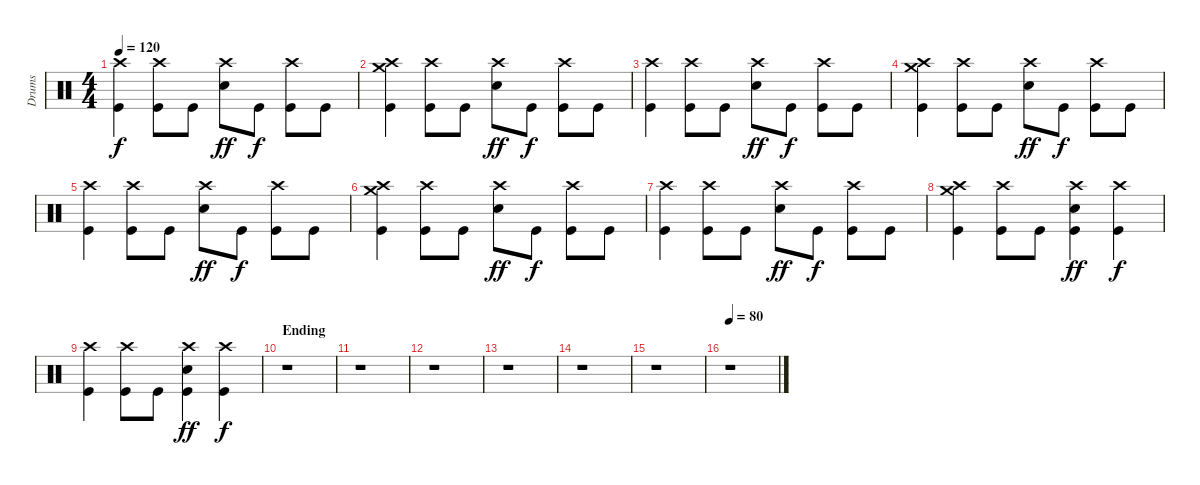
\track ("Drums" "Drums") {instrument percussion}
\staff {score}
\articulation defaults
\ts (4 4)
\tempo 120
\clef neutral
\ks c
("Crash high (hit)" "Kick (hit)").4{dy f} ("Crash high (hit)" "Kick (hit)").8 "Kick (hit)".8 ("Crash high (hit)" "Electric Snare (hit)").8{dy ff} "Kick (hit)".8{dy f} ("Crash high (hit)" "Kick (hit)").8 "Kick (hit)".8 |
("Crash high (hit)" "Crash medium (hit)" "Kick (hit)").4 ("Crash high (hit)" "Kick (hit)").8 "Kick (hit)".8 ("Crash high (hit)" "Electric Snare (hit)").8{dy ff} "Kick (hit)".8{dy f} ("Crash high (hit)" "Kick (hit)").8 "Kick (hit)".8 |
("Crash high (hit)" "Kick (hit)").4 ("Crash high (hit)" "Kick (hit)").8 "Kick (hit)".8 ("Crash high (hit)" "Electric Snare (hit)").8{dy ff} "Kick (hit)".8{dy f} ("Crash high (hit)" "Kick (hit)").8 "Kick (hit)".8 |
("Crash high (hit)" "Crash medium (hit)" "Kick (hit)").4 ("Crash high (hit)" "Kick (hit)").8 "Kick (hit)".8 ("Crash high (hit)" "Electric Snare (hit)").8{dy ff} "Kick (hit)".8{dy f} ("Crash high (hit)" "Kick (hit)").8 "Kick (hit)".8 |
("Crash high (hit)" "Kick (hit)").4 ("Crash high (hit)" "Kick (hit)").8 "Kick (hit)".8 ("Crash high (hit)" "Electric Snare (hit)").8{dy ff} "Kick (hit)".8{dy f} ("Crash high (hit)" "Kick (hit)").8 "Kick (hit)".8 |
("Crash high (hit)" "Crash medium (hit)" "Kick (hit)").4 ("Crash high (hit)" "Kick (hit)").8 "Kick (hit)".8 ("Crash high (hit)" "Electric Snare (hit)").8{dy ff} "Kick (hit)".8{dy f} ("Crash high (hit)" "Kick (hit)").8 "Kick (hit)".8 |
("Crash high (hit)" "Kick (hit)").4 ("Crash high (hit)" "Kick (hit)").8 "Kick (hit)".8 ("Crash high (hit)" "Electric Snare (hit)").8{dy ff} "Kick (hit)".8{dy f} ("Crash high (hit)" "Kick (hit)").8 "Kick (hit)".8 |
("Crash high (hit)" "Crash medium (hit)" "Kick (hit)").4{volume 6} ("Crash high (hit)" "Kick (hit)").8 "Kick (hit)".8 ("Crash high (hit)" "Electric Snare (hit)" "Kick (hit)").4{dy ff} ("Crash high (hit)" "Kick (hit)").4{dy f} |
("Crash high (hit)" "Kick (hit)").4 ("Crash high (hit)" "Kick (hit)").8 "Kick (hit)".8 ("Crash high (hit)" "Electric Snare (hit)" "Kick (hit)").4{dy ff volume 0} ("Crash high (hit)" "Kick (hit)").4{dy f} |
\section ("" "Ending")
r.1 |
r.1 |
r.1 |
r.1 |
r.1 |
r.1 |
\tempo 80
r.1
